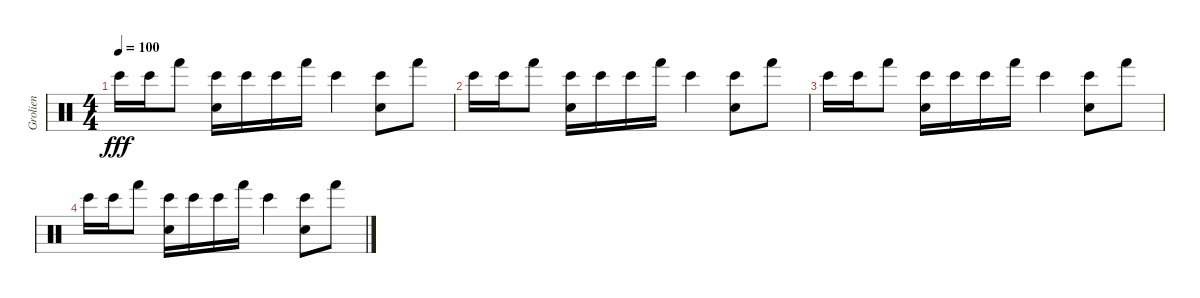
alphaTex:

\track ("Grolien" "Grolien") {instrument percussion}
\staff {score}
\articulation defaults
\ts (4 4)
\tempo 100
\clef neutral
\ks c "Bongo High (hit)".16{dy fff volume 4} "Bongo High (hit)".16 "Hand (hit)".8
("Hand Clap (hit)" "Bongo High (hit)").16 "Bongo High (hit)".16 "Bongo High (hit)".16 "Hand (hit)".16 "Bongo High (hit)".4 ("Hand Clap (hit)" "Bongo High (hit)").8 "Hand (hit)".8 |
"Bongo High (hit)".16 "Bongo High (hit)".16 "Hand (hit)".8 ("Hand Clap (hit)" "Bongo High (hit)").16 "Bongo High (hit)".16 "Bongo High (hit)".16 "Hand (hit)".16 "Bongo High (hit)".4 ("Hand Clap (hit)" "Bongo High (hit)").8 "Hand (hit)".8 |
"Bongo High (hit)".16{volume 0} "Bongo High (hit)".16 "Hand (hit)".8 ("Hand Clap (hit)" "Bongo High (hit)").16 "Bongo High (hit)".16 "Bongo High (hit)".16 "Hand (hit)".16 "Bongo High (hit)".4 ("Hand Clap (hit)" "Bongo High (hit)").8 "Hand (hit)".8 |
"Bongo High (hit)".16 "Bongo High (hit)".16 "Hand (hit)".8 ("Hand Clap (hit)" "Bongo High (hit)").16 "Bongo High (hit)".16 "Bongo High (hit)".16 "Hand (hit)".16 "Bongo High (hit)".4 ("Hand Clap (hit)" "Bongo High (hit)").8 "Hand (hit)".8
